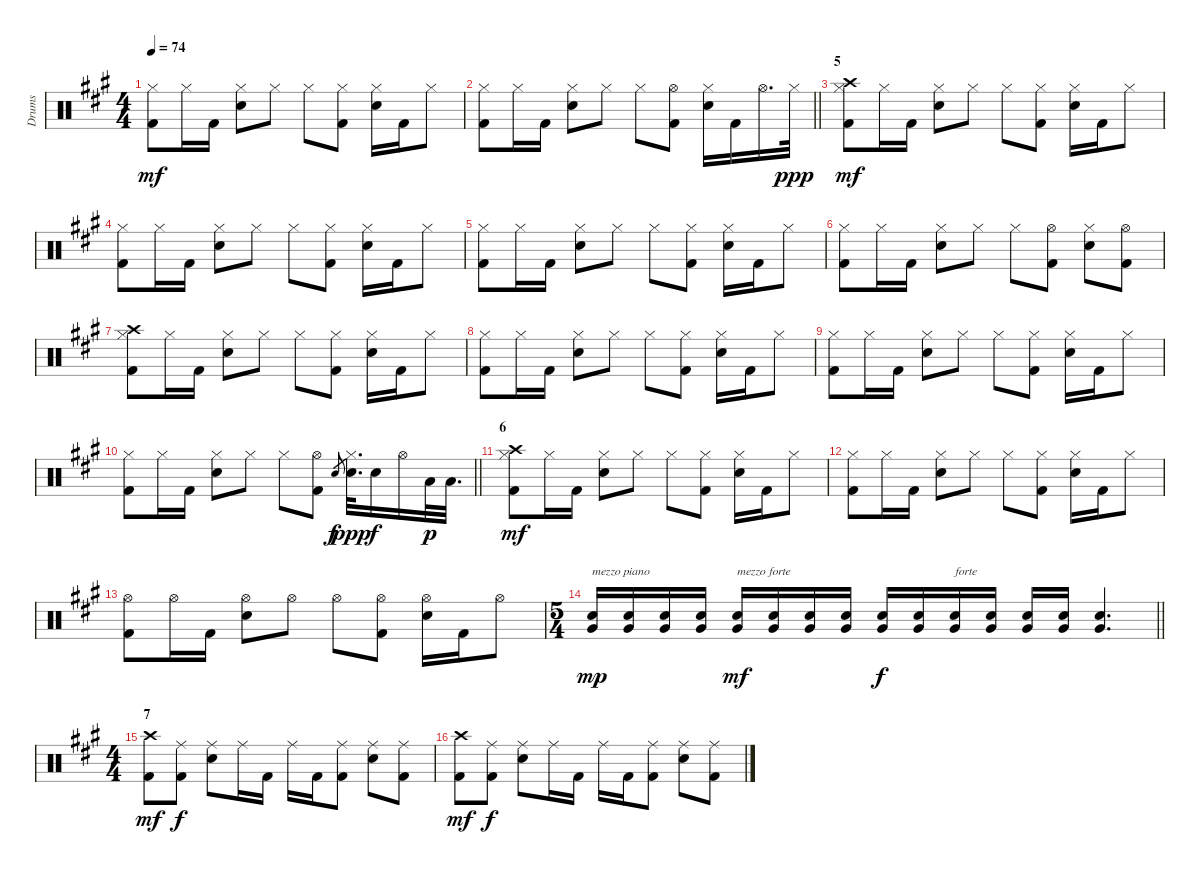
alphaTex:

\track ("Drums" "Drums") {instrument percussion}
\staff {score}
\articulation defaults
\ts (4 4)
\tempo 74
\clef neutral
\ks a
("Kick (hit) 2" "Hi-Hat (closed)").8{dy mf} "Hi-Hat (closed)".16 "Kick (hit) 2".16 ("Hi-Hat (closed)" "Electric Snare (hit)").8 "Hi-Hat (closed)".8 "Hi-Hat (closed)".8 ("Kick (hit) 2" "Hi-Hat (closed)").8 ("Electric Snare (hit)" "Hi-Hat (closed)").16 "Kick (hit) 2".16 "Hi-Hat (closed)".8 |
\barLineRight lightlight
("Kick (hit) 2" "Hi-Hat (closed)").8 "Hi-Hat (closed)".16 "Kick (hit) 2".16 ("Hi-Hat (closed)" "Electric Snare (hit)").8 "Hi-Hat (closed)".8 "Hi-Hat (closed)".8 ("Kick (hit) 2" "Hi-Hat (open)").8 ("Electric Snare (hit)" "Hi-Hat (closed)").16 "Kick (hit) 2".16 "Hi-Hat (open)".16{d} "Hi-Hat (closed)".32{dy ppp} |
\section ("" "5")
("Kick (hit) 2" "Hi-Hat (closed)" "Crash high (hit)").8{dy mf} "Hi-Hat (closed)".16 "Kick (hit) 2".16 ("Hi-Hat (closed)" "Electric Snare (hit)").8 "Hi-Hat (closed)".8 "Hi-Hat (closed)".8 ("Kick (hit) 2" "Hi-Hat (closed)").8 ("Electric Snare (hit)" "Hi-Hat (closed)").16 "Kick (hit) 2".16 "Hi-Hat (closed)".8 |
("Kick (hit) 2" "Hi-Hat (closed)").8 "Hi-Hat (closed)".16 "Kick (hit) 2".16 ("Hi-Hat (closed)" "Electric Snare (hit)").8 "Hi-Hat (closed)".8 "Hi-Hat (closed)".8 ("Kick (hit) 2" "Hi-Hat (closed)").8 ("Electric Snare (hit)" "Hi-Hat (closed)").16 "Kick (hit) 2".16 "Hi-Hat (closed)".8 |
("Kick (hit) 2" "Hi-Hat (closed)").8 "Hi-Hat (closed)".16 "Kick (hit) 2".16 ("Hi-Hat (closed)" "Electric Snare (hit)").8 "Hi-Hat (closed)".8 "Hi-Hat (closed)".8 ("Kick (hit) 2" "Hi-Hat (closed)").8 ("Electric Snare (hit)" "Hi-Hat (closed)").16 "Kick (hit) 2".16 "Hi-Hat (closed)".8 |
("Kick (hit) 2" "Hi-Hat (closed)").8 "Hi-Hat (closed)".16 "Kick (hit) 2".16 ("Hi-Hat (closed)" "Electric Snare (hit)").8 "Hi-Hat (closed)".8 "Hi-Hat (closed)".8 ("Kick (hit) 2" "Hi-Hat (open)").8 ("Electric Snare (hit)" "Hi-Hat (closed)").8 ("Kick (hit) 2" "Hi-Hat (open)").8 |
("Kick (hit) 2" "Hi-Hat (closed)" "Crash high (hit)").8 "Hi-Hat (closed)".16 "Kick (hit) 2".16 ("Hi-Hat (closed)" "Electric Snare (hit)").8 "Hi-Hat (closed)".8 "Hi-Hat (closed)".8 ("Kick (hit) 2" "Hi-Hat (closed)").8 ("Electric Snare (hit)" "Hi-Hat (closed)").16 "Kick (hit) 2".16 "Hi-Hat (closed)".8 |
("Kick (hit) 2" "Hi-Hat (closed)").8 "Hi-Hat (closed)".16 "Kick (hit) 2".16 ("Hi-Hat (closed)" "Electric Snare (hit)").8 "Hi-Hat (closed)".8 "Hi-Hat (closed)".8 ("Kick (hit) 2" "Hi-Hat (closed)").8 ("Electric Snare (hit)" "Hi-Hat (closed)").16 "Kick (hit) 2".16 "Hi-Hat (closed)".8 |
("Kick (hit) 2" "Hi-Hat (closed)").8 "Hi-Hat (closed)".16 "Kick (hit) 2".16 ("Hi-Hat (closed)" "Electric Snare (hit)").8 "Hi-Hat (closed)".8 "Hi-Hat (closed)".8 ("Kick (hit) 2" "Hi-Hat (closed)").8 ("Electric Snare (hit)" "Hi-Hat (closed)").16 "Kick (hit) 2".16 "Hi-Hat (closed)".8 |
\barLineRight lightlight
("Kick (hit) 2" "Hi-Hat (closed)").8 "Hi-Hat (closed)".16 "Kick (hit) 2".16 ("Hi-Hat (closed)" "Electric Snare (hit)").8 "Hi-Hat (closed)".8 "Hi-Hat (closed)".8 ("Kick (hit) 2" "Hi-Hat (open)").8 "Electric Snare (hit)".8{gr dy f} ("Electric Snare (hit)" "Hi-Hat (closed)").32{d dy ppp} "Electric Snare (hit)".16{dy f} "Hi-Hat (open)".16 "Low Floor Tom (hit)".32{dy p} "Low Floor Tom (hit)".32{d} |
\section ("" "6")
("Kick (hit) 2" "Hi-Hat (closed)" "Crash high (hit)").8{dy mf} "Hi-Hat (closed)".16 "Kick (hit) 2".16 ("Hi-Hat (closed)" "Electric Snare (hit)").8 "Hi-Hat (closed)".8 "Hi-Hat (closed)".8 ("Kick (hit) 2" "Hi-Hat (closed)").8 ("Electric Snare (hit)" "Hi-Hat (closed)").16 "Kick (hit) 2".16 "Hi-Hat (closed)".8 |
("Kick (hit) 2" "Hi-Hat (closed)").8 "Hi-Hat (closed)".16 "Kick (hit) 2".16 ("Hi-Hat (closed)" "Electric Snare (hit)").8 "Hi-Hat (closed)".8 "Hi-Hat (closed)".8 ("Kick (hit) 2" "Hi-Hat (closed)").8 ("Electric Snare (hit)" "Hi-Hat (closed)").16 "Kick (hit) 2".16 "Hi-Hat (closed)".8 |
("Kick (hit) 2" "Hi-Hat (open)").8 "Hi-Hat (open)".16 "Kick (hit) 2".16 ("Hi-Hat (open)" "Electric Snare (hit)").8 "Hi-Hat (open)".8 "Hi-Hat (open)".8 ("Kick (hit) 2" "Hi-Hat (open)").8 ("Electric Snare (hit)" "Hi-Hat (open)").16 "Kick (hit) 2".16 "Hi-Hat (open)".8 |
\ts (5 4)
\barLineRight lightlight
("Electric Snare (hit)" "Very Low Tom (hit)").16{txt "mezzo piano" dy mp} ("Electric Snare (hit)" "Very Low Tom (hit)").16 ("Electric Snare (hit)" "Very Low Tom (hit)").16 ("Electric Snare (hit)" "Very Low Tom (hit)").16 ("Electric Snare (hit)" "Very Low Tom (hit)").16{txt "mezzo forte" dy mf} ("Electric Snare (hit)" "Very Low Tom (hit)").16 ("Electric Snare (hit)" "Very Low Tom (hit)").16 ("Electric Snare (hit)" "Very Low Tom (hit)").16 ("Electric Snare (hit)" "Very Low Tom (hit)").16{dy f} ("Electric Snare (hit)" "Very Low Tom (hit)").16 ("Electric Snare (hit)" "Very Low Tom (hit)").16{txt "forte"} ("Electric Snare (hit)" "Very Low Tom (hit)").16 ("Electric Snare (hit)" "Very Low Tom (hit)").16 ("Electric Snare (hit)" "Very Low Tom (hit)").16 ("Electric Snare (hit)" "Very Low Tom (hit)").4{d} |
\ts (4 4)
\section ("" "7")
("Kick (hit) 2" "Crash high (hit)").8{dy mf} ("Kick (hit) 2" "Ride (middle)").8{dy f} ("Ride (middle)" "Electric Snare (hit)").8 "Ride (middle)".16 "Kick (hit) 2".16 "Ride (middle)".16 "Kick (hit) 2".16 ("Kick (hit) 2" "Ride (middle)").8 ("Electric Snare (hit)" "Ride (middle)").8 ("Ride (middle)" "Kick (hit) 2").8 |
("Kick (hit) 2" "Crash high (hit)").8{dy mf} ("Kick (hit) 2" "Ride (middle)").8{dy f} ("Ride (middle)" "Electric Snare (hit)").8 "Ride (middle)".16 "Kick (hit) 2".16 "Ride (middle)".16 "Kick (hit) 2".16 ("Kick (hit) 2" "Ride (middle)").8 ("Electric Snare (hit)" "Ride (middle)").8 ("Ride (middle)" "Kick (hit) 2").8
